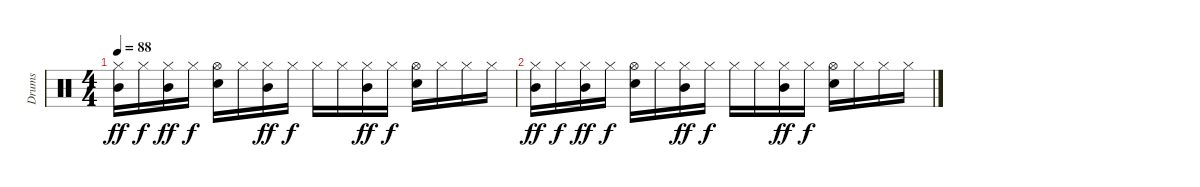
\track ("Drums" "Drums") {instrument percussion}
\staff {score}
\articulation defaults
\ts (4 4)
\tempo 88
\clef neutral
\ks c
("Hi-Hat (closed)" "Mid Tom (hit)").16{dy ff volume 0} "Hi-Hat (closed)".16{dy f} ("Hi-Hat (closed)" "Mid Tom (hit)").16{dy ff} "Hi-Hat (closed)".16{dy f} ("Hi-Hat (open)" "Electric Snare (hit)").16 "Hi-Hat (closed)".16 ("Hi-Hat (closed)" "Mid Tom (hit)").16{dy ff} "Hi-Hat (closed)".16{dy f} "Hi-Hat (closed)".16 "Hi-Hat (closed)".16 ("Hi-Hat (closed)" "Mid Tom (hit)").16{dy ff} "Hi-Hat (closed)".16{dy f} ("Hi-Hat (open)" "Electric Snare (hit)").16 "Hi-Hat (closed)".16 "Hi-Hat (closed)".16 "Hi-Hat (closed)".16 |
("Hi-Hat (closed)" "Mid Tom (hit)").16{dy ff} "Hi-Hat (closed)".16{dy f} ("Hi-Hat (closed)" "Mid Tom (hit)").16{dy ff} "Hi-Hat (closed)".16{dy f} ("Hi-Hat (open)" "Electric Snare (hit)").16 "Hi-Hat (closed)".16 ("Hi-Hat (closed)" "Mid Tom (hit)").16{dy ff} "Hi-Hat (closed)".16{dy f} "Hi-Hat (closed)".16 "Hi-Hat (closed)".16 ("Hi-Hat (closed)" "Mid Tom (hit)").16{dy ff} "Hi-Hat (closed)".16{dy f} ("Hi-Hat (open)" "Electric Snare (hit)").16 "Hi-Hat (closed)".16 "Hi-Hat (closed)".16 "Hi-Hat (closed)".16
